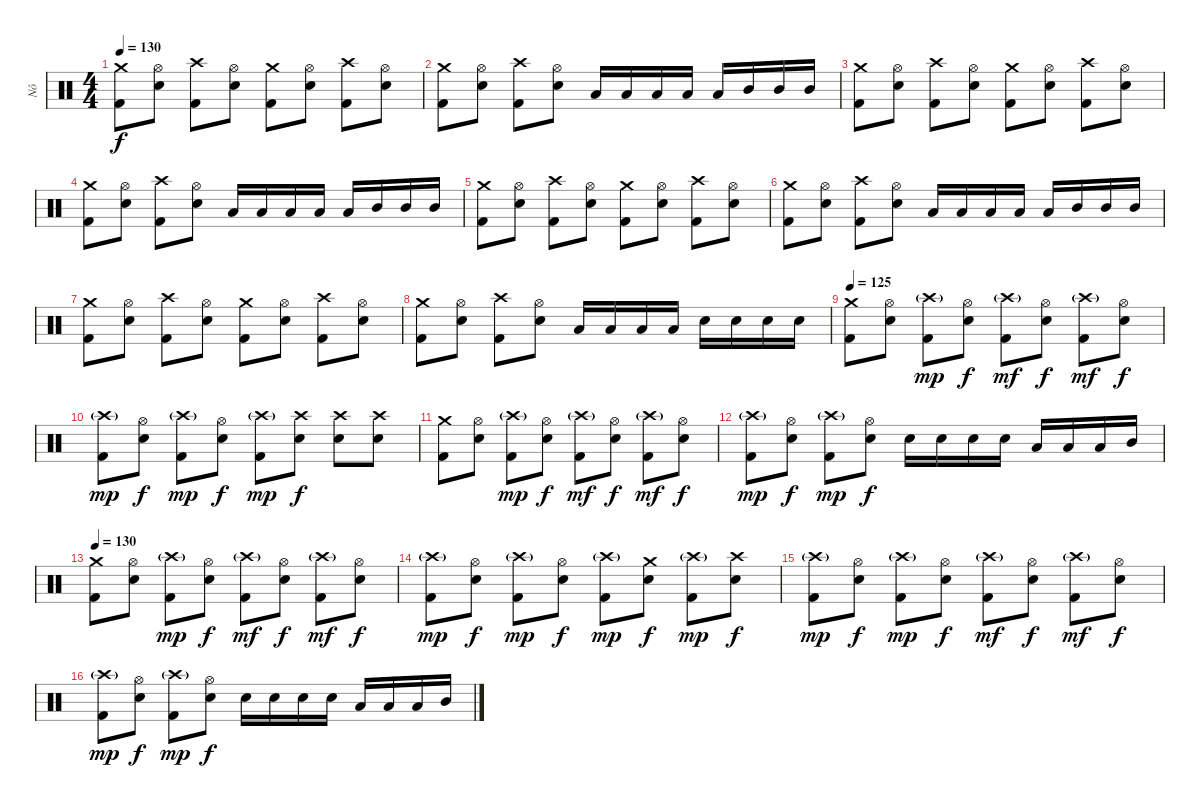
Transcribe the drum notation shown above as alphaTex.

\track ("Nô" "Nô") {instrument percussion}
\staff {score}
\articulation defaults
\ts (4 4)
\tempo 130
\clef neutral
\ks c
("Crash medium (hit)" "Kick (hit) 2").8{dy f} ("Hi-Hat (open)" "Electric Snare (hit)").8 ("Crash high (hit)" "Kick (hit) 2").8 ("Hi-Hat (open)" "Electric Snare (hit)").8 ("Crash medium (hit)" "Kick (hit) 2").8 ("Hi-Hat (open)" "Electric Snare (hit)").8 ("Crash high (hit)" "Kick (hit) 2").8 ("Hi-Hat (open)" "Electric Snare (hit)").8 |
("Crash medium (hit)" "Kick (hit) 2").8 ("Hi-Hat (open)" "Electric Snare (hit)").8 ("Crash high (hit)" "Kick (hit) 2").8 ("Hi-Hat (open)" "Electric Snare (hit)").8 "Low Tom (hit)".16 "Low Tom (hit)".16 "Low Tom (hit)".16 "Low Tom (hit)".16 "Low Tom (hit)".16 "Mid Tom (hit)".16 "Mid Tom (hit)".16 "Mid Tom (hit)".16 |
("Crash medium (hit)" "Kick (hit) 2").8 ("Hi-Hat (open)" "Electric Snare (hit)").8 ("Crash high (hit)" "Kick (hit) 2").8 ("Hi-Hat (open)" "Electric Snare (hit)").8 ("Crash medium (hit)" "Kick (hit) 2").8 ("Hi-Hat (open)" "Electric Snare (hit)").8 ("Crash high (hit)" "Kick (hit) 2").8 ("Hi-Hat (open)" "Electric Snare (hit)").8 |
("Crash medium (hit)" "Kick (hit) 2").8 ("Hi-Hat (open)" "Electric Snare (hit)").8 ("Crash high (hit)" "Kick (hit) 2").8 ("Hi-Hat (open)" "Electric Snare (hit)").8 "Low Tom (hit)".16 "Low Tom (hit)".16 "Low Tom (hit)".16 "Low Tom (hit)".16 "Low Tom (hit)".16 "Mid Tom (hit)".16 "Mid Tom (hit)".16 "Mid Tom (hit)".16 |
("Crash medium (hit)" "Kick (hit) 2").8 ("Hi-Hat (open)" "Electric Snare (hit)").8 ("Crash high (hit)" "Kick (hit) 2").8 ("Hi-Hat (open)" "Electric Snare (hit)").8 ("Crash medium (hit)" "Kick (hit) 2").8 ("Hi-Hat (open)" "Electric Snare (hit)").8 ("Crash high (hit)" "Kick (hit) 2").8 ("Hi-Hat (open)" "Electric Snare (hit)").8 |
("Crash medium (hit)" "Kick (hit) 2").8 ("Hi-Hat (open)" "Electric Snare (hit)").8 ("Crash high (hit)" "Kick (hit) 2").8 ("Hi-Hat (open)" "Electric Snare (hit)").8 "Low Tom (hit)".16 "Low Tom (hit)".16 "Low Tom (hit)".16 "Low Tom (hit)".16 "Low Tom (hit)".16 "Mid Tom (hit)".16 "Mid Tom (hit)".16 "Mid Tom (hit)".16 |
("Crash medium (hit)" "Kick (hit) 2").8 ("Hi-Hat (open)" "Electric Snare (hit)").8 ("Crash high (hit)" "Kick (hit) 2").8 ("Hi-Hat (open)" "Electric Snare (hit)").8 ("Crash medium (hit)" "Kick (hit) 2").8 ("Hi-Hat (open)" "Electric Snare (hit)").8 ("Crash high (hit)" "Kick (hit) 2").8 ("Hi-Hat (open)" "Electric Snare (hit)").8 |
("Crash medium (hit)" "Kick (hit) 2").8 ("Hi-Hat (open)" "Electric Snare (hit)").8 ("Crash high (hit)" "Kick (hit) 2").8 ("Hi-Hat (open)" "Electric Snare (hit)").8 "Low Tom (hit)".16 "Low Tom (hit)".16 "Low Tom (hit)".16 "Low Tom (hit)".16 "Electric Snare (hit)".16 "Electric Snare (hit)".16 "Electric Snare (hit)".16 "Electric Snare (hit)".16 |
\tempo 125
("Crash medium (hit)" "Kick (hit) 2").8 ("Hi-Hat (open)" "Electric Snare (hit)").8 ("Crash high (hit)"{g} "Kick (hit) 2").8{dy mp} ("Hi-Hat (open)" "Electric Snare (hit)").8{dy f} ("Crash high (hit)"{g} "Kick (hit) 2").8{dy mf} ("Hi-Hat (open)" "Electric Snare (hit)").8{dy f} ("Crash high (hit)"{g} "Kick (hit) 2").8{dy mf} ("Hi-Hat (open)" "Electric Snare (hit)").8{dy f} |
("Crash high (hit)"{g} "Kick (hit) 2").8{dy mp} ("Hi-Hat (open)" "Electric Snare (hit)").8{dy f} ("Crash high (hit)"{g} "Kick (hit) 2").8{dy mp} ("Hi-Hat (open)" "Electric Snare (hit)").8{dy f} ("Crash high (hit)"{g} "Kick (hit) 2").8{dy mp} ("Crash high (hit)" "Electric Snare (hit)").8{dy f} ("Crash high (hit)" "Electric Snare (hit)").8 ("Crash high (hit)" "Electric Snare (hit)").8 |
("Crash medium (hit)" "Kick (hit) 2").8 ("Hi-Hat (open)" "Electric Snare (hit)").8 ("Crash high (hit)"{g} "Kick (hit) 2").8{dy mp} ("Hi-Hat (open)" "Electric Snare (hit)").8{dy f} ("Crash high (hit)"{g} "Kick (hit) 2").8{dy mf} ("Hi-Hat (open)" "Electric Snare (hit)").8{dy f} ("Crash high (hit)"{g} "Kick (hit) 2").8{dy mf} ("Hi-Hat (open)" "Electric Snare (hit)").8{dy f} |
("Crash high (hit)"{g} "Kick (hit) 2").8{dy mp} ("Hi-Hat (open)" "Electric Snare (hit)").8{dy f} ("Crash high (hit)"{g} "Kick (hit) 2").8{dy mp} ("Hi-Hat (open)" "Electric Snare (hit)").8{dy f} "Electric Snare (hit)".16 "Electric Snare (hit)".16 "Electric Snare (hit)".16 "Electric Snare (hit)".16 "Low Tom (hit)".16 "Low Tom (hit)".16 "Low Tom (hit)".16 "Mid Tom (hit)".16 |
\tempo 130
("Crash medium (hit)" "Kick (hit) 2").8 ("Hi-Hat (open)" "Electric Snare (hit)").8 ("Crash high (hit)"{g} "Kick (hit) 2").8{dy mp} ("Hi-Hat (open)" "Electric Snare (hit)").8{dy f} ("Crash high (hit)"{g} "Kick (hit) 2").8{dy mf} ("Hi-Hat (open)" "Electric Snare (hit)").8{dy f} ("Crash high (hit)"{g} "Kick (hit) 2").8{dy mf} ("Hi-Hat (open)" "Electric Snare (hit)").8{dy f} |
("Crash high (hit)"{g} "Kick (hit) 2").8{dy mp} ("Hi-Hat (open)" "Electric Snare (hit)").8{dy f} ("Crash high (hit)"{g} "Kick (hit) 2").8{dy mp} ("Hi-Hat (open)" "Electric Snare (hit)").8{dy f} ("Crash high (hit)"{g} "Kick (hit) 2").8{dy mp} ("Crash medium (hit)" "Electric Snare (hit)").8{dy f} ("Crash high (hit)"{g} "Kick (hit) 2").8{dy mp} ("Crash high (hit)" "Electric Snare (hit)").8{dy f} |
("Crash high (hit)"{g} "Kick (hit) 2").8{dy mp} ("Hi-Hat (open)" "Electric Snare (hit)").8{dy f} ("Crash high (hit)"{g} "Kick (hit) 2").8{dy mp} ("Hi-Hat (open)" "Electric Snare (hit)").8{dy f} ("Crash high (hit)"{g} "Kick (hit) 2").8{dy mf} ("Hi-Hat (open)" "Electric Snare (hit)").8{dy f} ("Crash high (hit)"{g} "Kick (hit) 2").8{dy mf} ("Hi-Hat (open)" "Electric Snare (hit)").8{dy f} |
("Crash high (hit)"{g} "Kick (hit) 2").8{dy mp} ("Hi-Hat (open)" "Electric Snare (hit)").8{dy f} ("Crash high (hit)"{g} "Kick (hit) 2").8{dy mp} ("Hi-Hat (open)" "Electric Snare (hit)").8{dy f} "Electric Snare (hit)".16 "Electric Snare (hit)".16 "Electric Snare (hit)".16 "Electric Snare (hit)".16 "Low Tom (hit)".16 "Low Tom (hit)".16 "Low Tom (hit)".16 "Mid Tom (hit)".16
